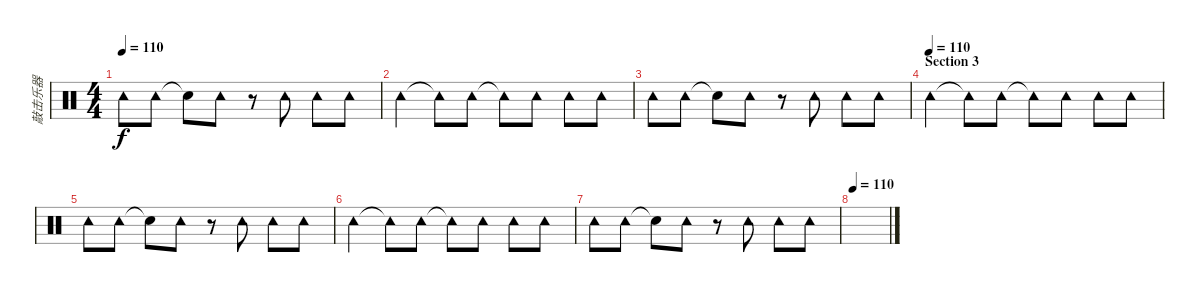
\track ("敲击乐器" "敲击乐器") {instrument percussion}
\staff {score}
\articulation defaults
\ts (4 4)
\tempo 110
\clef neutral
\ks c "Tambourine (hit)".8{dy f} "Tambourine (hit)".8 "Snare (hit)"{t}.8 "Tambourine (hit)".8
r.8 "Tambourine (hit)".8 "Tambourine (hit)".8 "Tambourine (hit)".8 |
"Tambourine (hit)".4 "Tambourine (hit)"{t}.8 "Tambourine (hit)".8 "Tambourine (hit)"{t}.8 "Tambourine (hit)".8 "Tambourine (hit)".8 "Tambourine (hit)".8 |
"Tambourine (hit)".8 "Tambourine (hit)".8 "Snare (hit)"{t}.8 "Tambourine (hit)".8 r.8 "Tambourine (hit)".8 "Tambourine (hit)".8 "Tambourine (hit)".8 |
\section ("" "Section 3")
\tempo (110)
"Tambourine (hit)".4 "Tambourine (hit)"{t}.8 "Tambourine (hit)".8 "Tambourine (hit)"{t}.8 "Tambourine (hit)".8 "Tambourine (hit)".8 "Tambourine (hit)".8 |
"Tambourine (hit)".8 "Tambourine (hit)".8 "Snare (hit)"{t}.8 "Tambourine (hit)".8 r.8 "Tambourine (hit)".8 "Tambourine (hit)".8 "Tambourine (hit)".8 |
"Tambourine (hit)".4 "Tambourine (hit)"{t}.8 "Tambourine (hit)".8 "Tambourine (hit)"{t}.8 "Tambourine (hit)".8 "Tambourine (hit)".8 "Tambourine (hit)".8 |
"Tambourine (hit)".8 "Tambourine (hit)".8 "Snare (hit)"{t}.8 "Tambourine (hit)".8 r.8 "Tambourine (hit)".8 "Tambourine (hit)".8 "Tambourine (hit)".8 |
\tempo 110
